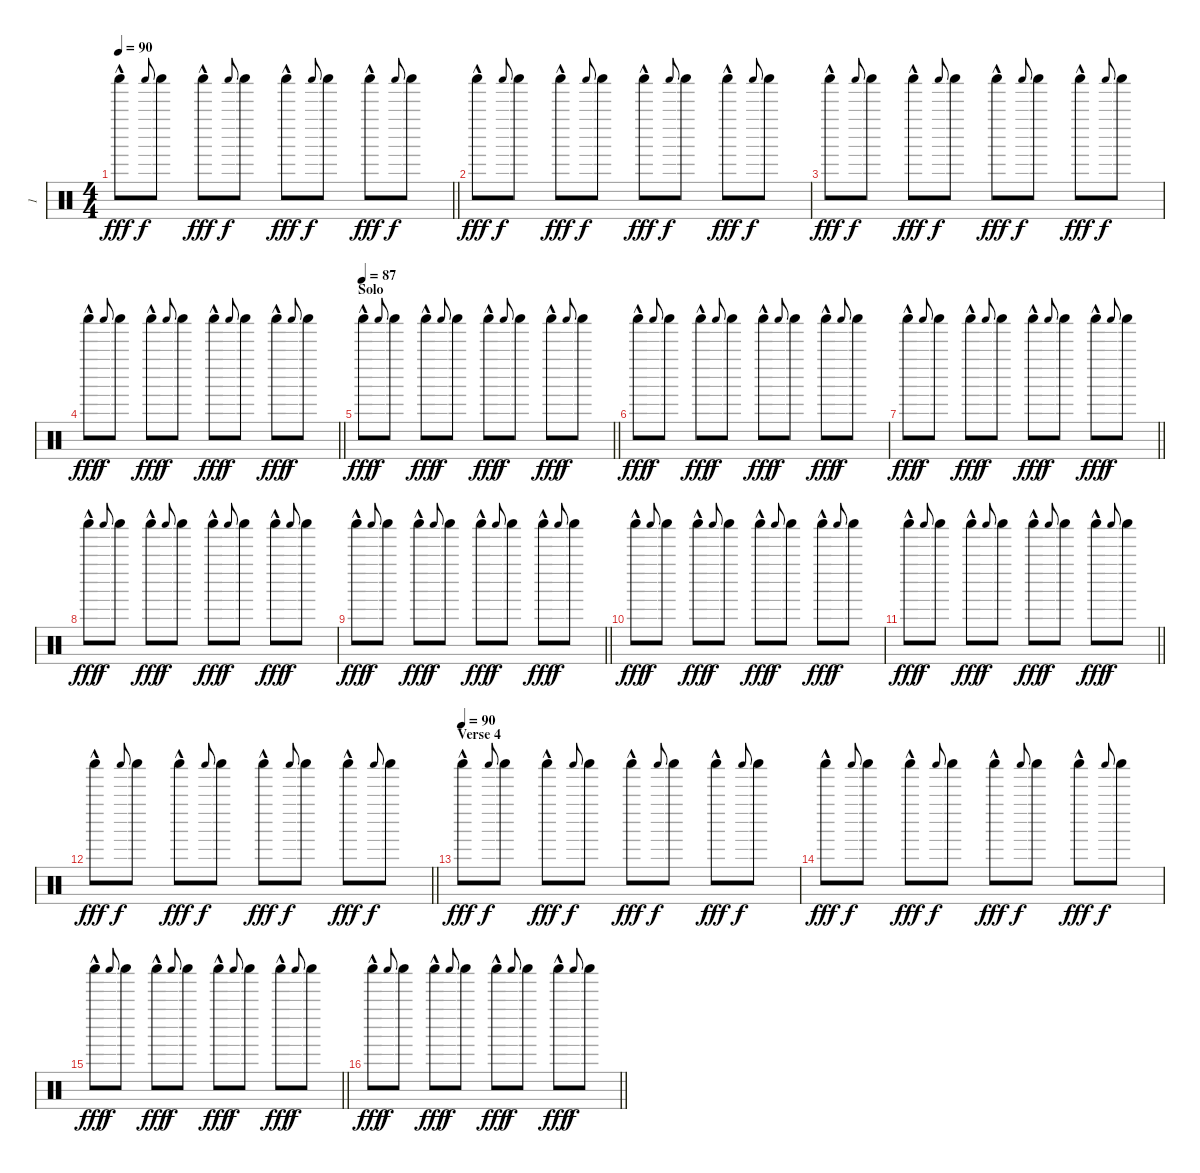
\track ("1" "1") {instrument percussion}
\staff {score}
\articulation defaults
\ts (4 4)
\tempo 90
\clef neutral
\barLineRight lightlight
\ks c "Shaker (hit)"{hac}.8{dy fff} "Shaker (hit)".8{gr onbeat dy f} "Shaker (hit)".8 "Shaker (hit)"{hac}.8{dy fff} "Shaker (hit)".8{gr onbeat dy f} "Shaker (hit)".8 "Shaker (hit)"{hac}.8{dy fff} "Shaker (hit)".8{gr onbeat dy f} "Shaker (hit)".8 "Shaker (hit)"{hac}.8{dy fff} "Shaker (hit)".8{gr onbeat dy f} "Shaker (hit)".8
|
"Shaker (hit)"{hac}.8{dy fff} "Shaker (hit)".8{gr onbeat dy f} "Shaker (hit)".8 "Shaker (hit)"{hac}.8{dy fff} "Shaker (hit)".8{gr onbeat dy f} "Shaker (hit)".8 "Shaker (hit)"{hac}.8{dy fff} "Shaker (hit)".8{gr onbeat dy f} "Shaker (hit)".8 "Shaker (hit)"{hac}.8{dy fff} "Shaker (hit)".8{gr onbeat dy f} "Shaker (hit)".8 |
"Shaker (hit)"{hac}.8{dy fff} "Shaker (hit)".8{gr onbeat dy f} "Shaker (hit)".8 "Shaker (hit)"{hac}.8{dy fff} "Shaker (hit)".8{gr onbeat dy f} "Shaker (hit)".8 "Shaker (hit)"{hac}.8{dy fff} "Shaker (hit)".8{gr onbeat dy f} "Shaker (hit)".8 "Shaker (hit)"{hac}.8{dy fff} "Shaker (hit)".8{gr onbeat dy f} "Shaker (hit)".8 |
\barLineRight lightlight "Shaker (hit)"{hac}.8{dy fff} "Shaker (hit)".8{gr onbeat dy f} "Shaker (hit)".8 "Shaker (hit)"{hac}.8{dy fff} "Shaker (hit)".8{gr onbeat dy f} "Shaker (hit)".8 "Shaker (hit)"{hac}.8{dy fff} "Shaker (hit)".8{gr onbeat dy f} "Shaker (hit)".8 "Shaker (hit)"{hac}.8{dy fff} "Shaker (hit)".8{gr onbeat dy f} "Shaker (hit)".8
|
\section ("" "Solo")
\tempo 87
\barLineRight lightlight "Shaker (hit)"{hac}.8{dy fff} "Shaker (hit)".8{gr onbeat dy f} "Shaker (hit)".8 "Shaker (hit)"{hac}.8{dy fff} "Shaker (hit)".8{gr onbeat dy f} "Shaker (hit)".8 "Shaker (hit)"{hac}.8{dy fff} "Shaker (hit)".8{gr onbeat dy f} "Shaker (hit)".8 "Shaker (hit)"{hac}.8{dy fff} "Shaker (hit)".8{gr onbeat dy f} "Shaker (hit)".8
|
"Shaker (hit)"{hac}.8{dy fff} "Shaker (hit)".8{gr onbeat dy f} "Shaker (hit)".8 "Shaker (hit)"{hac}.8{dy fff} "Shaker (hit)".8{gr onbeat dy f} "Shaker (hit)".8 "Shaker (hit)"{hac}.8{dy fff} "Shaker (hit)".8{gr onbeat dy f} "Shaker (hit)".8 "Shaker (hit)"{hac}.8{dy fff} "Shaker (hit)".8{gr onbeat dy f} "Shaker (hit)".8 |
\barLineRight lightlight "Shaker (hit)"{hac}.8{dy fff} "Shaker (hit)".8{gr onbeat dy f} "Shaker (hit)".8 "Shaker (hit)"{hac}.8{dy fff} "Shaker (hit)".8{gr onbeat dy f} "Shaker (hit)".8 "Shaker (hit)"{hac}.8{dy fff} "Shaker (hit)".8{gr onbeat dy f} "Shaker (hit)".8 "Shaker (hit)"{hac}.8{dy fff} "Shaker (hit)".8{gr onbeat dy f} "Shaker (hit)".8
|
"Shaker (hit)"{hac}.8{dy fff} "Shaker (hit)".8{gr onbeat dy f} "Shaker (hit)".8 "Shaker (hit)"{hac}.8{dy fff} "Shaker (hit)".8{gr onbeat dy f} "Shaker (hit)".8 "Shaker (hit)"{hac}.8{dy fff} "Shaker (hit)".8{gr onbeat dy f} "Shaker (hit)".8 "Shaker (hit)"{hac}.8{dy fff} "Shaker (hit)".8{gr onbeat dy f} "Shaker (hit)".8 |
\barLineRight lightlight "Shaker (hit)"{hac}.8{dy fff} "Shaker (hit)".8{gr onbeat dy f} "Shaker (hit)".8 "Shaker (hit)"{hac}.8{dy fff} "Shaker (hit)".8{gr onbeat dy f} "Shaker (hit)".8 "Shaker (hit)"{hac}.8{dy fff} "Shaker (hit)".8{gr onbeat dy f} "Shaker (hit)".8 "Shaker (hit)"{hac}.8{dy fff} "Shaker (hit)".8{gr onbeat dy f} "Shaker (hit)".8
|
"Shaker (hit)"{hac}.8{dy fff} "Shaker (hit)".8{gr onbeat dy f} "Shaker (hit)".8 "Shaker (hit)"{hac}.8{dy fff} "Shaker (hit)".8{gr onbeat dy f} "Shaker (hit)".8 "Shaker (hit)"{hac}.8{dy fff} "Shaker (hit)".8{gr onbeat dy f} "Shaker (hit)".8 "Shaker (hit)"{hac}.8{dy fff} "Shaker (hit)".8{gr onbeat dy f} "Shaker (hit)".8 |
\barLineRight lightlight "Shaker (hit)"{hac}.8{dy fff} "Shaker (hit)".8{gr onbeat dy f} "Shaker (hit)".8 "Shaker (hit)"{hac}.8{dy fff} "Shaker (hit)".8{gr onbeat dy f} "Shaker (hit)".8 "Shaker (hit)"{hac}.8{dy fff} "Shaker (hit)".8{gr onbeat dy f} "Shaker (hit)".8 "Shaker (hit)"{hac}.8{dy fff} "Shaker (hit)".8{gr onbeat dy f} "Shaker (hit)".8
|
\barLineRight lightlight "Shaker (hit)"{hac}.8{dy fff} "Shaker (hit)".8{gr onbeat dy f} "Shaker (hit)".8 "Shaker (hit)"{hac}.8{dy fff} "Shaker (hit)".8{gr onbeat dy f} "Shaker (hit)".8 "Shaker (hit)"{hac}.8{dy fff} "Shaker (hit)".8{gr onbeat dy f} "Shaker (hit)".8 "Shaker (hit)"{hac}.8{dy fff} "Shaker (hit)".8{gr onbeat dy f} "Shaker (hit)".8
|
\section ("" "Verse 4")
\tempo (90)
"Shaker (hit)"{hac}.8{dy fff} "Shaker (hit)".8{gr onbeat dy f} "Shaker (hit)".8 "Shaker (hit)"{hac}.8{dy fff} "Shaker (hit)".8{gr onbeat dy f} "Shaker (hit)".8 "Shaker (hit)"{hac}.8{dy fff} "Shaker (hit)".8{gr onbeat dy f} "Shaker (hit)".8 "Shaker (hit)"{hac}.8{dy fff} "Shaker (hit)".8{gr onbeat dy f} "Shaker (hit)".8 |
"Shaker (hit)"{hac}.8{dy fff} "Shaker (hit)".8{gr onbeat dy f} "Shaker (hit)".8 "Shaker (hit)"{hac}.8{dy fff} "Shaker (hit)".8{gr onbeat dy f} "Shaker (hit)".8 "Shaker (hit)"{hac}.8{dy fff} "Shaker (hit)".8{gr onbeat dy f} "Shaker (hit)".8 "Shaker (hit)"{hac}.8{dy fff} "Shaker (hit)".8{gr onbeat dy f} "Shaker (hit)".8 |
\barLineRight lightlight "Shaker (hit)"{hac}.8{dy fff} "Shaker (hit)".8{gr onbeat dy f} "Shaker (hit)".8 "Shaker (hit)"{hac}.8{dy fff} "Shaker (hit)".8{gr onbeat dy f} "Shaker (hit)".8 "Shaker (hit)"{hac}.8{dy fff} "Shaker (hit)".8{gr onbeat dy f} "Shaker (hit)".8 "Shaker (hit)"{hac}.8{dy fff} "Shaker (hit)".8{gr onbeat dy f} "Shaker (hit)".8
|
\barLineRight lightlight "Shaker (hit)"{hac}.8{dy fff} "Shaker (hit)".8{gr onbeat dy f} "Shaker (hit)".8 "Shaker (hit)"{hac}.8{dy fff} "Shaker (hit)".8{gr onbeat dy f} "Shaker (hit)".8 "Shaker (hit)"{hac}.8{dy fff} "Shaker (hit)".8{gr onbeat dy f} "Shaker (hit)".8 "Shaker (hit)"{hac}.8{dy fff} "Shaker (hit)".8{gr onbeat dy f} "Shaker (hit)".8
